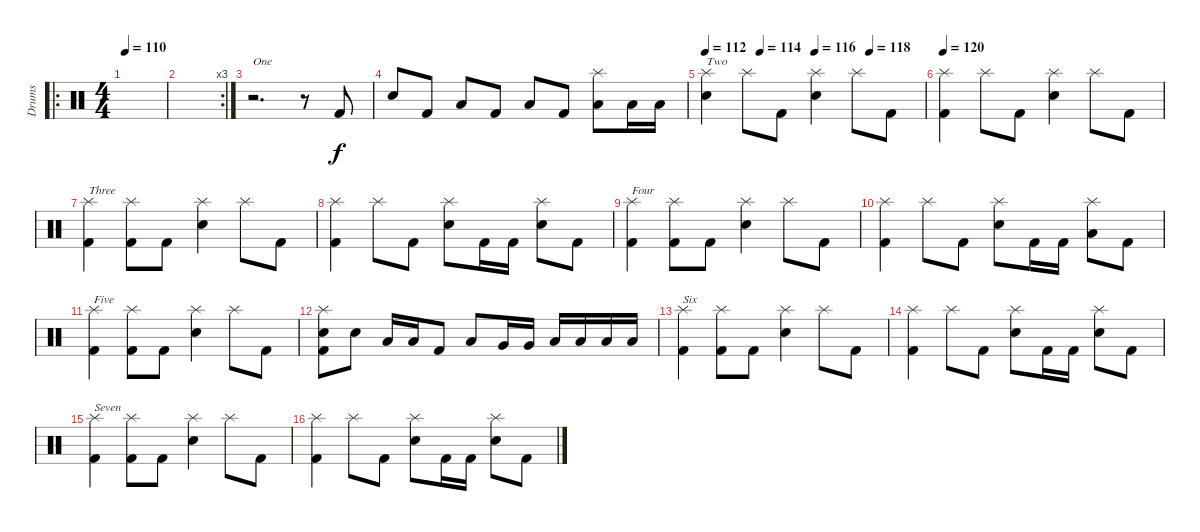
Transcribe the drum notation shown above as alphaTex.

\track ("Drums" "Drums") {instrument percussion}
\staff {score}
\articulation defaults
\ro
\ts (4 4)
\tempo 110
\clef neutral
\ks c
|
\rc 3
|
r.2{d txt "One"} r.8 "Kick (hit) 2".8 |
"Snare (hit) 2".8 "Kick (hit) 2".8 "Low Tom (hit)".8 "Kick (hit) 2".8 "Low Tom (hit)".8 "Kick (hit) 2".8 ("Splash (hit)" "Low Tom (hit)").8 "Low Tom (hit)".16 "Low Tom (hit)".16 |
\tempo 112
\tempo (114 0.25)
\tempo (116 0.5)
\tempo (118 0.75)
("Splash (hit)" "Snare (hit) 2").4{txt "Two"} "Splash (hit)".8 "Kick (hit) 2".8 ("Splash (hit)" "Snare (hit) 2").4 "Splash (hit)".8 "Kick (hit) 2".8 |
\tempo 120
("Splash (hit)" "Kick (hit) 2").4 "Splash (hit)".8 "Kick (hit) 2".8 ("Splash (hit)" "Snare (hit) 2").4 "Splash (hit)".8 "Kick (hit) 2".8 |
("Splash (hit)" "Kick (hit) 2").4{txt "Three"} ("Splash (hit)" "Kick (hit) 2").8 "Kick (hit) 2".8 ("Splash (hit)" "Snare (hit) 2").4 "Splash (hit)".8 "Kick (hit) 2".8 |
("Splash (hit)" "Kick (hit) 2").4 "Splash (hit)".8 "Kick (hit) 2".8 ("Splash (hit)" "Snare (hit) 2").8 "Kick (hit) 2".16 "Kick (hit) 2".16 ("Splash (hit)" "Snare (hit) 2").8 "Kick (hit) 2".8 |
("Splash (hit)" "Kick (hit) 2").4{txt "Four"} ("Splash (hit)" "Kick (hit) 2").8 "Kick (hit) 2".8 ("Splash (hit)" "Snare (hit) 2").4 "Splash (hit)".8 "Kick (hit) 2".8 |
("Splash (hit)" "Kick (hit) 2").4 "Splash (hit)".8 "Kick (hit) 2".8 ("Splash (hit)" "Snare (hit) 2").8 "Kick (hit) 2".16 "Kick (hit) 2".16 ("Splash (hit)" "Low Tom (hit)").8 "Kick (hit) 2".8 |
("Splash (hit)" "Kick (hit) 2").4{txt "Five"} ("Splash (hit)" "Kick (hit) 2").8 "Kick (hit) 2".8 ("Splash (hit)" "Snare (hit) 2").4 "Splash (hit)".8 "Kick (hit) 2".8 |
("Splash (hit)" "Snare (hit) 2" "Kick (hit) 2").8 "Snare (hit) 2".8 "Low Tom (hit)".16 "Low Tom (hit)".16 "Kick (hit) 2".8 "Low Tom (hit)".8 "Very Low Tom (hit)".16 "Very Low Tom (hit)".16 "Low Floor Tom (hit)".16 "Low Floor Tom (hit)".16 "Low Floor Tom (hit)".16 "Low Floor Tom (hit)".16 |
("Splash (hit)" "Kick (hit) 2").4{txt "Six"} ("Splash (hit)" "Kick (hit) 2").8 "Kick (hit) 2".8 ("Splash (hit)" "Snare (hit) 2").4 "Splash (hit)".8 "Kick (hit) 2".8 |
("Splash (hit)" "Kick (hit) 2").4 "Splash (hit)".8 "Kick (hit) 2".8 ("Splash (hit)" "Snare (hit) 2").8 "Kick (hit) 2".16 "Kick (hit) 2".16 ("Splash (hit)" "Snare (hit) 2").8 "Kick (hit) 2".8 |
("Splash (hit)" "Kick (hit) 2").4{txt "Seven"} ("Splash (hit)" "Kick (hit) 2").8 "Kick (hit) 2".8 ("Splash (hit)" "Snare (hit) 2").4 "Splash (hit)".8 "Kick (hit) 2".8 |
("Splash (hit)" "Kick (hit) 2").4 "Splash (hit)".8 "Kick (hit) 2".8 ("Splash (hit)" "Snare (hit) 2").8 "Kick (hit) 2".16 "Kick (hit) 2".16 ("Splash (hit)" "Snare (hit) 2").8 "Kick (hit) 2".8
